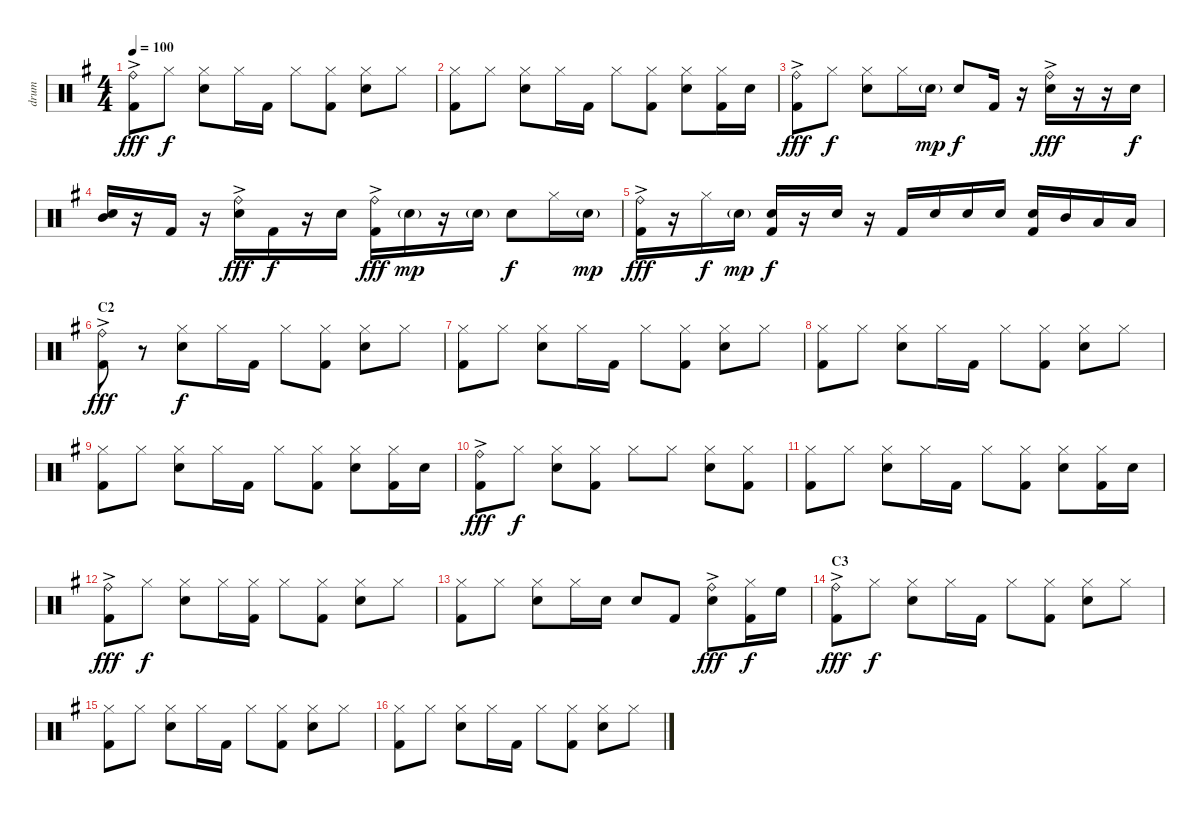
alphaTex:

\track ("drum" "drum") {instrument percussion}
\staff {score}
\articulation defaults
\ts (4 4)
\tempo 100
\clef neutral
\ks g
("Ride (bell)"{ac} "Kick (hit) 2").8{dy fff} "Hi-Hat (closed)".8{dy f} ("Hi-Hat (closed)" "Snare (hit) 2").8 "Hi-Hat (closed)".16 "Kick (hit) 2".16 "Hi-Hat (closed)".8 ("Hi-Hat (closed)" "Kick (hit) 2").8 ("Hi-Hat (closed)" "Snare (hit) 2").8 "Hi-Hat (closed)".8 |
("Hi-Hat (closed)" "Kick (hit) 2").8 "Hi-Hat (closed)".8 ("Hi-Hat (closed)" "Snare (hit) 2").8 "Hi-Hat (closed)".16 "Kick (hit) 2".16 "Hi-Hat (closed)".8 ("Hi-Hat (closed)" "Kick (hit) 2").8 ("Hi-Hat (closed)" "Snare (hit) 2").8 ("Hi-Hat (closed)" "Kick (hit) 2").16 "Snare (hit) 2".16 |
("Ride (bell)"{ac} "Kick (hit) 2").8{dy fff} "Hi-Hat (closed)".8{dy f} ("Hi-Hat (closed)" "Snare (hit) 2").8 "Hi-Hat (closed)".16 "Snare (hit) 2"{g}.16{dy mp} "Snare (hit) 2".8{dy f} "Kick (hit) 2".16 r.16 ("Ride (bell)"{ac} "Snare (hit) 2").16{dy fff} r.16 r.16 "Snare (hit) 2".16{dy f} |
("Mid Tom (hit)" "Snare (hit) 2").16 r.16 "Kick (hit) 2".16 r.16 ("Ride (bell)"{ac} "Snare (hit) 2").16{dy fff} "Kick (hit) 2".16{dy f} r.16 "Snare (hit) 2".16 ("Ride (bell)"{ac} "Kick (hit) 2").16{dy fff} "Snare (hit) 2"{g}.16{dy mp} r.16 "Snare (hit) 2"{g}.16 "Snare (hit) 2".8{dy f} "Hi-Hat (closed)".16 "Snare (hit) 2"{g}.16{dy mp} |
("Ride (bell)"{ac} "Kick (hit) 2").16{dy fff} r.16 "Hi-Hat (closed)".16{dy f} "Snare (hit) 2"{g}.16{dy mp} ("Snare (hit) 2" "Kick (hit) 2").16{dy f} r.16 "Snare (hit) 2".16 r.16 "Kick (hit) 2".16 "Snare (hit) 2".16 "Snare (hit) 2".16 "Snare (hit) 2".16 ("Snare (hit) 2" "Kick (hit) 2").16 "Mid Tom (hit)".16 "Low Tom (hit)".16 "Low Tom (hit)".16 |
\section ("" "C2")
("Ride (bell)"{ac} "Kick (hit) 2").8{dy fff} r.8 ("Hi-Hat (closed)" "Snare (hit) 2").8{dy f} "Hi-Hat (closed)".16 "Kick (hit) 2".16 "Hi-Hat (closed)".8 ("Hi-Hat (closed)" "Kick (hit) 2").8 ("Hi-Hat (closed)" "Snare (hit) 2").8 "Hi-Hat (closed)".8 |
("Hi-Hat (closed)" "Kick (hit) 2").8 "Hi-Hat (closed)".8 ("Hi-Hat (closed)" "Snare (hit) 2").8 "Hi-Hat (closed)".16 "Kick (hit) 2".16 "Hi-Hat (closed)".8 ("Hi-Hat (closed)" "Kick (hit) 2").8 ("Hi-Hat (closed)" "Snare (hit) 2").8 "Hi-Hat (closed)".8 |
("Hi-Hat (closed)" "Kick (hit) 2").8 "Hi-Hat (closed)".8 ("Hi-Hat (closed)" "Snare (hit) 2").8 "Hi-Hat (closed)".16 "Kick (hit) 2".16 "Hi-Hat (closed)".8 ("Hi-Hat (closed)" "Kick (hit) 2").8 ("Hi-Hat (closed)" "Snare (hit) 2").8 "Hi-Hat (closed)".8 |
("Hi-Hat (closed)" "Kick (hit) 2").8 "Hi-Hat (closed)".8 ("Hi-Hat (closed)" "Snare (hit) 2").8 "Hi-Hat (closed)".16 "Kick (hit) 2".16 "Hi-Hat (closed)".8 ("Hi-Hat (closed)" "Kick (hit) 2").8 ("Hi-Hat (closed)" "Snare (hit) 2").8 ("Hi-Hat (closed)" "Kick (hit) 2").16 "Snare (hit) 2".16 |
("Ride (bell)"{ac} "Kick (hit) 2").8{dy fff} "Hi-Hat (closed)".8{dy f} ("Hi-Hat (closed)" "Snare (hit) 2").8 ("Hi-Hat (closed)" "Kick (hit) 2").8 "Hi-Hat (closed)".8 "Hi-Hat (closed)".8 ("Hi-Hat (closed)" "Snare (hit) 2").8 ("Hi-Hat (closed)" "Kick (hit) 2").8 |
("Hi-Hat (closed)" "Kick (hit) 2").8 "Hi-Hat (closed)".8 ("Hi-Hat (closed)" "Snare (hit) 2").8 "Hi-Hat (closed)".16 "Kick (hit) 2".16 "Hi-Hat (closed)".8 ("Hi-Hat (closed)" "Kick (hit) 2").8 ("Hi-Hat (closed)" "Snare (hit) 2").8 ("Hi-Hat (closed)" "Kick (hit) 2").16 "Snare (hit) 2".16 |
("Ride (bell)"{ac} "Kick (hit) 2").8{dy fff} "Hi-Hat (closed)".8{dy f} ("Hi-Hat (closed)" "Snare (hit) 2").8 "Hi-Hat (closed)".16 ("Hi-Hat (closed)" "Kick (hit) 2").16 "Hi-Hat (closed)".8 ("Hi-Hat (closed)" "Kick (hit) 2").8 ("Hi-Hat (closed)" "Snare (hit) 2").8 "Hi-Hat (closed)".8 |
("Hi-Hat (closed)" "Kick (hit) 2").8 "Hi-Hat (closed)".8 ("Hi-Hat (closed)" "Snare (hit) 2").8 "Hi-Hat (closed)".16 "Snare (hit) 2".16 "Snare (hit) 2".8 "Kick (hit) 2".8 ("Ride (bell)"{ac} "Snare (hit) 2").8{dy fff} ("Hi-Hat (closed)" "Kick (hit) 2").16{dy f} "High Floor Tom (hit)".16 |
\section ("" "C3")
("Ride (bell)"{ac} "Kick (hit) 2").8{dy fff} "Hi-Hat (closed)".8{dy f} ("Hi-Hat (closed)" "Snare (hit) 2").8 "Hi-Hat (closed)".16 "Kick (hit) 2".16 "Hi-Hat (closed)".8 ("Hi-Hat (closed)" "Kick (hit) 2").8 ("Hi-Hat (closed)" "Snare (hit) 2").8 "Hi-Hat (closed)".8 |
("Hi-Hat (closed)" "Kick (hit) 2").8 "Hi-Hat (closed)".8 ("Hi-Hat (closed)" "Snare (hit) 2").8 "Hi-Hat (closed)".16 "Kick (hit) 2".16 "Hi-Hat (closed)".8 ("Hi-Hat (closed)" "Kick (hit) 2").8 ("Hi-Hat (closed)" "Snare (hit) 2").8 "Hi-Hat (closed)".8 |
("Hi-Hat (closed)" "Kick (hit) 2").8 "Hi-Hat (closed)".8 ("Hi-Hat (closed)" "Snare (hit) 2").8 "Hi-Hat (closed)".16 "Kick (hit) 2".16 "Hi-Hat (closed)".8 ("Hi-Hat (closed)" "Kick (hit) 2").8 ("Hi-Hat (closed)" "Snare (hit) 2").8 "Hi-Hat (closed)".8
